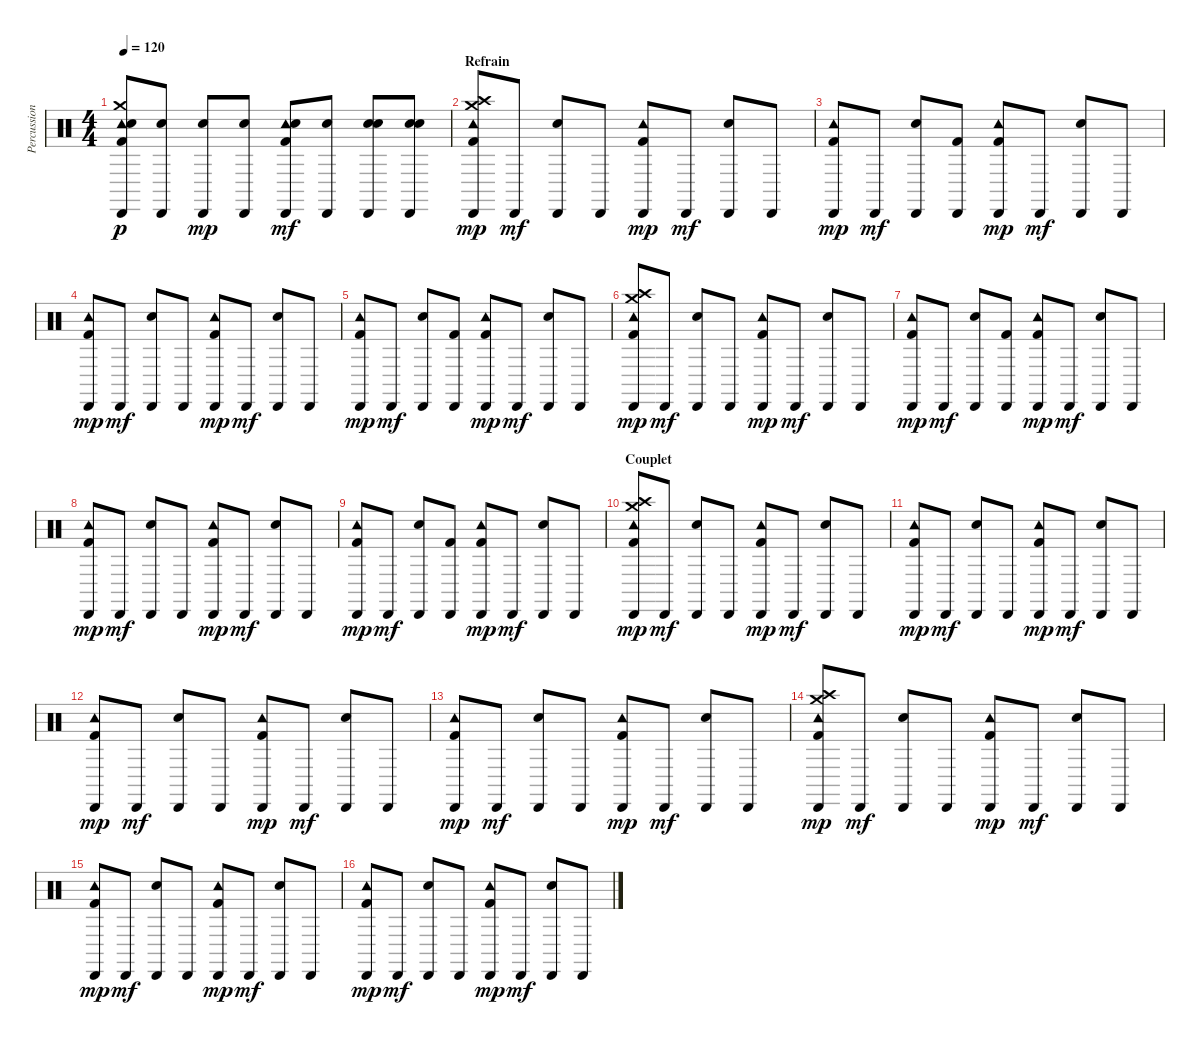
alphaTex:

\track ("Percussions" "Percussion") {instrument percussion}
\staff {score}
\articulation defaults
\ts (4 4)
\tempo 120
\clef neutral
\ks c
("Tambourine (hit)" "Cabasa (hit)" "Crash medium (hit)" "Electric Snare (hit)" "Kick (hit) 2").8{dy p} ("Cabasa (hit)" "Electric Snare (hit)").8 ("Cabasa (hit)" "Electric Snare (hit)").8{dy mp} ("Cabasa (hit)" "Electric Snare (hit)").8 ("Tambourine (hit)" "Cabasa (hit)" "Electric Snare (hit)" "Kick (hit) 2").8{dy mf} ("Cabasa (hit)" "Electric Snare (hit)").8 ("Cabasa (hit)" "Electric Snare (hit)" "Electric Snare (hit)").8 ("Cabasa (hit)" "Electric Snare (hit)" "Electric Snare (hit)").8 |
\section ("" "Refrain")
("Tambourine (hit)" "Cabasa (hit)" "Crash medium (hit)" "Crash high (hit)" "Kick (hit) 2").8{dy mp} "Cabasa (hit)".8{dy mf} ("Cabasa (hit)" "Electric Snare (hit)").8 "Cabasa (hit)".8 ("Tambourine (hit)" "Cabasa (hit)" "Kick (hit) 2").8{dy mp} "Cabasa (hit)".8{dy mf} ("Cabasa (hit)" "Electric Snare (hit)").8 "Cabasa (hit)".8 |
("Tambourine (hit)" "Cabasa (hit)" "Kick (hit) 2").8{dy mp} "Cabasa (hit)".8{dy mf} ("Cabasa (hit)" "Electric Snare (hit)").8 ("Cabasa (hit)" "Kick (hit) 2").8 ("Tambourine (hit)" "Cabasa (hit)" "Kick (hit) 2").8{dy mp} "Cabasa (hit)".8{dy mf} ("Cabasa (hit)" "Electric Snare (hit)").8 "Cabasa (hit)".8 |
("Tambourine (hit)" "Cabasa (hit)" "Kick (hit) 2").8{dy mp} "Cabasa (hit)".8{dy mf} ("Cabasa (hit)" "Electric Snare (hit)").8 "Cabasa (hit)".8 ("Tambourine (hit)" "Cabasa (hit)" "Kick (hit) 2").8{dy mp} "Cabasa (hit)".8{dy mf} ("Cabasa (hit)" "Electric Snare (hit)").8 "Cabasa (hit)".8 |
("Tambourine (hit)" "Cabasa (hit)" "Kick (hit) 2").8{dy mp} "Cabasa (hit)".8{dy mf} ("Cabasa (hit)" "Electric Snare (hit)").8 ("Cabasa (hit)" "Kick (hit) 2").8 ("Tambourine (hit)" "Cabasa (hit)" "Kick (hit) 2").8{dy mp} "Cabasa (hit)".8{dy mf} ("Cabasa (hit)" "Electric Snare (hit)").8 "Cabasa (hit)".8 |
("Tambourine (hit)" "Cabasa (hit)" "Crash medium (hit)" "Crash high (hit)" "Kick (hit) 2").8{dy mp} "Cabasa (hit)".8{dy mf} ("Cabasa (hit)" "Electric Snare (hit)").8 "Cabasa (hit)".8 ("Tambourine (hit)" "Cabasa (hit)" "Kick (hit) 2").8{dy mp} "Cabasa (hit)".8{dy mf} ("Cabasa (hit)" "Electric Snare (hit)").8 "Cabasa (hit)".8 |
("Tambourine (hit)" "Cabasa (hit)" "Kick (hit) 2").8{dy mp} "Cabasa (hit)".8{dy mf} ("Cabasa (hit)" "Electric Snare (hit)").8 ("Cabasa (hit)" "Kick (hit) 2").8 ("Tambourine (hit)" "Cabasa (hit)" "Kick (hit) 2").8{dy mp} "Cabasa (hit)".8{dy mf} ("Cabasa (hit)" "Electric Snare (hit)").8 "Cabasa (hit)".8 |
("Tambourine (hit)" "Cabasa (hit)" "Kick (hit) 2").8{dy mp} "Cabasa (hit)".8{dy mf} ("Cabasa (hit)" "Electric Snare (hit)").8 "Cabasa (hit)".8 ("Tambourine (hit)" "Cabasa (hit)" "Kick (hit) 2").8{dy mp} "Cabasa (hit)".8{dy mf} ("Cabasa (hit)" "Electric Snare (hit)").8 "Cabasa (hit)".8 |
("Tambourine (hit)" "Cabasa (hit)" "Kick (hit) 2").8{dy mp} "Cabasa (hit)".8{dy mf} ("Cabasa (hit)" "Electric Snare (hit)").8 ("Cabasa (hit)" "Kick (hit) 2").8 ("Tambourine (hit)" "Cabasa (hit)" "Kick (hit) 2").8{dy mp} "Cabasa (hit)".8{dy mf} ("Cabasa (hit)" "Electric Snare (hit)").8 "Cabasa (hit)".8 |
\section ("" "Couplet")
("Tambourine (hit)" "Cabasa (hit)" "Crash medium (hit)" "Crash high (hit)" "Kick (hit) 2").8{dy mp} "Cabasa (hit)".8{dy mf} ("Cabasa (hit)" "Electric Snare (hit)").8 "Cabasa (hit)".8 ("Tambourine (hit)" "Cabasa (hit)" "Kick (hit) 2").8{dy mp} "Cabasa (hit)".8{dy mf} ("Cabasa (hit)" "Electric Snare (hit)").8 "Cabasa (hit)".8 |
("Tambourine (hit)" "Cabasa (hit)" "Kick (hit) 2").8{dy mp} "Cabasa (hit)".8{dy mf} ("Cabasa (hit)" "Electric Snare (hit)").8 "Cabasa (hit)".8 ("Tambourine (hit)" "Cabasa (hit)" "Kick (hit) 2").8{dy mp} "Cabasa (hit)".8{dy mf} ("Cabasa (hit)" "Electric Snare (hit)").8 "Cabasa (hit)".8 |
("Tambourine (hit)" "Cabasa (hit)" "Kick (hit) 2").8{dy mp} "Cabasa (hit)".8{dy mf} ("Cabasa (hit)" "Electric Snare (hit)").8 "Cabasa (hit)".8 ("Tambourine (hit)" "Cabasa (hit)" "Kick (hit) 2").8{dy mp} "Cabasa (hit)".8{dy mf} ("Cabasa (hit)" "Electric Snare (hit)").8 "Cabasa (hit)".8 |
("Tambourine (hit)" "Cabasa (hit)" "Kick (hit) 2").8{dy mp} "Cabasa (hit)".8{dy mf} ("Cabasa (hit)" "Electric Snare (hit)").8 "Cabasa (hit)".8 ("Tambourine (hit)" "Cabasa (hit)" "Kick (hit) 2").8{dy mp} "Cabasa (hit)".8{dy mf} ("Cabasa (hit)" "Electric Snare (hit)").8 "Cabasa (hit)".8 |
("Tambourine (hit)" "Cabasa (hit)" "Crash medium (hit)" "Crash high (hit)" "Kick (hit) 2").8{dy mp} "Cabasa (hit)".8{dy mf} ("Cabasa (hit)" "Electric Snare (hit)").8 "Cabasa (hit)".8 ("Tambourine (hit)" "Cabasa (hit)" "Kick (hit) 2").8{dy mp} "Cabasa (hit)".8{dy mf} ("Cabasa (hit)" "Electric Snare (hit)").8 "Cabasa (hit)".8 |
("Tambourine (hit)" "Cabasa (hit)" "Kick (hit) 2").8{dy mp} "Cabasa (hit)".8{dy mf} ("Cabasa (hit)" "Electric Snare (hit)").8 "Cabasa (hit)".8 ("Tambourine (hit)" "Cabasa (hit)" "Kick (hit) 2").8{dy mp} "Cabasa (hit)".8{dy mf} ("Cabasa (hit)" "Electric Snare (hit)").8 "Cabasa (hit)".8 |
("Tambourine (hit)" "Cabasa (hit)" "Kick (hit) 2").8{dy mp} "Cabasa (hit)".8{dy mf} ("Cabasa (hit)" "Electric Snare (hit)").8 "Cabasa (hit)".8 ("Tambourine (hit)" "Cabasa (hit)" "Kick (hit) 2").8{dy mp} "Cabasa (hit)".8{dy mf} ("Cabasa (hit)" "Electric Snare (hit)").8 "Cabasa (hit)".8
